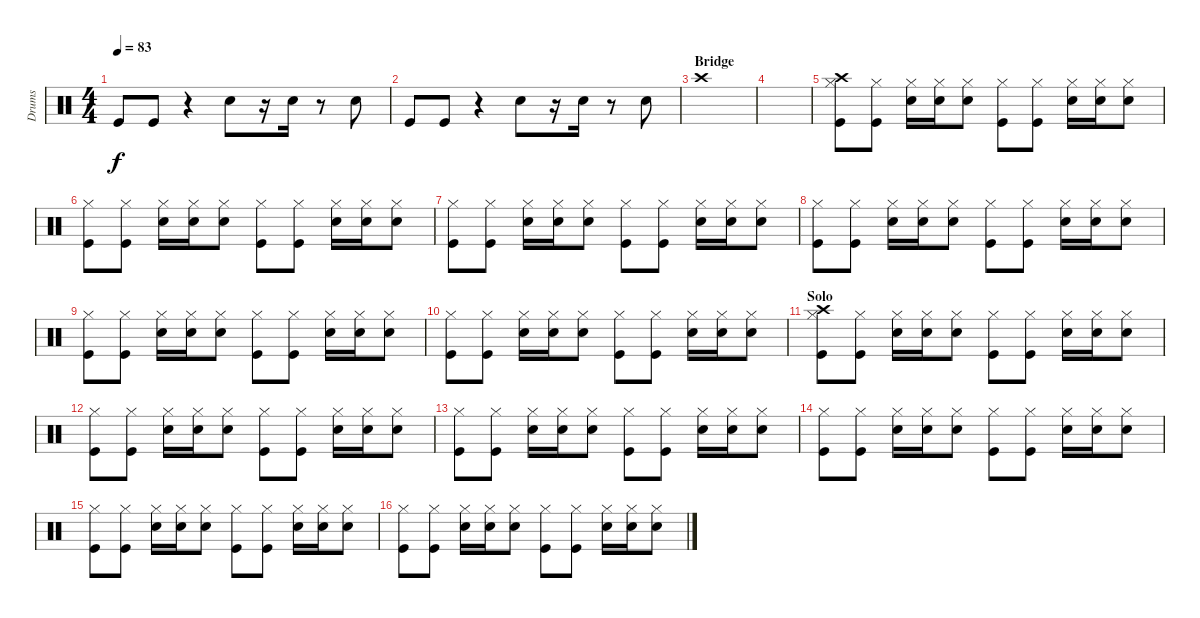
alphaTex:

\track ("Drums" "Drums") {instrument percussion}
\staff {score}
\articulation defaults
\ts (4 4)
\tempo 83
\clef neutral
\ks c "Kick (hit)".8{dy f} "Kick (hit)".8
r.4 "Snare (hit) 2".8 r.16 "Electric Snare (hit)".16 r.8 "Electric Snare (hit)".8 |
"Kick (hit)".8 "Kick (hit)".8 r.4 "Snare (hit) 2".8 r.16 "Electric Snare (hit)".16 r.8 "Electric Snare (hit)".8 |
\section ("" "Bridge")
"Crash high (hit)".1 |
|
("Crash high (hit)" "Hi-Hat (closed)" "Kick (hit)").8 ("Hi-Hat (closed)" "Kick (hit)").8 ("Hi-Hat (closed)" "Electric Snare (hit)").16 ("Hi-Hat (closed)" "Snare (hit) 2").16 ("Hi-Hat (closed)" "Snare (hit) 2").8 ("Hi-Hat (closed)" "Kick (hit)").8 ("Hi-Hat (closed)" "Kick (hit)").8 ("Hi-Hat (closed)" "Electric Snare (hit)").16 ("Hi-Hat (closed)" "Snare (hit) 2").16 ("Hi-Hat (closed)" "Snare (hit) 2").8 |
("Hi-Hat (closed)" "Kick (hit)").8 ("Hi-Hat (closed)" "Kick (hit)").8 ("Hi-Hat (closed)" "Electric Snare (hit)").16 ("Hi-Hat (closed)" "Snare (hit) 2").16 ("Hi-Hat (closed)" "Snare (hit) 2").8 ("Hi-Hat (closed)" "Kick (hit)").8 ("Hi-Hat (closed)" "Kick (hit)").8 ("Hi-Hat (closed)" "Electric Snare (hit)").16 ("Hi-Hat (closed)" "Snare (hit) 2").16 ("Hi-Hat (closed)" "Snare (hit) 2").8 |
("Hi-Hat (closed)" "Kick (hit)").8 ("Hi-Hat (closed)" "Kick (hit)").8 ("Hi-Hat (closed)" "Electric Snare (hit)").16 ("Hi-Hat (closed)" "Snare (hit) 2").16 ("Hi-Hat (closed)" "Snare (hit) 2").8 ("Hi-Hat (closed)" "Kick (hit)").8 ("Hi-Hat (closed)" "Kick (hit)").8 ("Hi-Hat (closed)" "Electric Snare (hit)").16 ("Hi-Hat (closed)" "Snare (hit) 2").16 ("Hi-Hat (closed)" "Snare (hit) 2").8 |
("Hi-Hat (closed)" "Kick (hit)").8 ("Hi-Hat (closed)" "Kick (hit)").8 ("Hi-Hat (closed)" "Electric Snare (hit)").16 ("Hi-Hat (closed)" "Snare (hit) 2").16 ("Hi-Hat (closed)" "Snare (hit) 2").8 ("Hi-Hat (closed)" "Kick (hit)").8 ("Hi-Hat (closed)" "Kick (hit)").8 ("Hi-Hat (closed)" "Electric Snare (hit)").16 ("Hi-Hat (closed)" "Snare (hit) 2").16 ("Hi-Hat (closed)" "Snare (hit) 2").8 |
("Hi-Hat (closed)" "Kick (hit)").8 ("Hi-Hat (closed)" "Kick (hit)").8 ("Hi-Hat (closed)" "Electric Snare (hit)").16 ("Hi-Hat (closed)" "Snare (hit) 2").16 ("Hi-Hat (closed)" "Snare (hit) 2").8 ("Hi-Hat (closed)" "Kick (hit)").8 ("Hi-Hat (closed)" "Kick (hit)").8 ("Hi-Hat (closed)" "Electric Snare (hit)").16 ("Hi-Hat (closed)" "Snare (hit) 2").16 ("Hi-Hat (closed)" "Snare (hit) 2").8 |
("Hi-Hat (closed)" "Kick (hit)").8 ("Hi-Hat (closed)" "Kick (hit)").8 ("Hi-Hat (closed)" "Electric Snare (hit)").16 ("Hi-Hat (closed)" "Snare (hit) 2").16 ("Hi-Hat (closed)" "Snare (hit) 2").8 ("Hi-Hat (closed)" "Kick (hit)").8 ("Hi-Hat (closed)" "Kick (hit)").8 ("Hi-Hat (closed)" "Electric Snare (hit)").16 ("Hi-Hat (closed)" "Snare (hit) 2").16 ("Hi-Hat (closed)" "Snare (hit) 2").8 |
\section ("" "Solo")
("Crash high (hit)" "Hi-Hat (closed)" "Kick (hit)").8 ("Hi-Hat (closed)" "Kick (hit)").8 ("Hi-Hat (closed)" "Electric Snare (hit)").16 ("Hi-Hat (closed)" "Snare (hit) 2").16 ("Hi-Hat (closed)" "Snare (hit) 2").8 ("Hi-Hat (closed)" "Kick (hit)").8 ("Hi-Hat (closed)" "Kick (hit)").8 ("Hi-Hat (closed)" "Electric Snare (hit)").16 ("Hi-Hat (closed)" "Snare (hit) 2").16 ("Hi-Hat (closed)" "Snare (hit) 2").8 |
("Hi-Hat (closed)" "Kick (hit)").8 ("Hi-Hat (closed)" "Kick (hit)").8 ("Hi-Hat (closed)" "Electric Snare (hit)").16 ("Hi-Hat (closed)" "Snare (hit) 2").16 ("Hi-Hat (closed)" "Snare (hit) 2").8 ("Hi-Hat (closed)" "Kick (hit)").8 ("Hi-Hat (closed)" "Kick (hit)").8 ("Hi-Hat (closed)" "Electric Snare (hit)").16 ("Hi-Hat (closed)" "Snare (hit) 2").16 ("Hi-Hat (closed)" "Snare (hit) 2").8 |
("Hi-Hat (closed)" "Kick (hit)").8 ("Hi-Hat (closed)" "Kick (hit)").8 ("Hi-Hat (closed)" "Electric Snare (hit)").16 ("Hi-Hat (closed)" "Snare (hit) 2").16 ("Hi-Hat (closed)" "Snare (hit) 2").8 ("Hi-Hat (closed)" "Kick (hit)").8 ("Hi-Hat (closed)" "Kick (hit)").8 ("Hi-Hat (closed)" "Electric Snare (hit)").16 ("Hi-Hat (closed)" "Snare (hit) 2").16 ("Hi-Hat (closed)" "Snare (hit) 2").8 |
("Hi-Hat (closed)" "Kick (hit)").8 ("Hi-Hat (closed)" "Kick (hit)").8 ("Hi-Hat (closed)" "Electric Snare (hit)").16 ("Hi-Hat (closed)" "Snare (hit) 2").16 ("Hi-Hat (closed)" "Snare (hit) 2").8 ("Hi-Hat (closed)" "Kick (hit)").8 ("Hi-Hat (closed)" "Kick (hit)").8 ("Hi-Hat (closed)" "Electric Snare (hit)").16 ("Hi-Hat (closed)" "Snare (hit) 2").16 ("Hi-Hat (closed)" "Snare (hit) 2").8 |
("Hi-Hat (closed)" "Kick (hit)").8 ("Hi-Hat (closed)" "Kick (hit)").8 ("Hi-Hat (closed)" "Electric Snare (hit)").16 ("Hi-Hat (closed)" "Snare (hit) 2").16 ("Hi-Hat (closed)" "Snare (hit) 2").8 ("Hi-Hat (closed)" "Kick (hit)").8 ("Hi-Hat (closed)" "Kick (hit)").8 ("Hi-Hat (closed)" "Electric Snare (hit)").16 ("Hi-Hat (closed)" "Snare (hit) 2").16 ("Hi-Hat (closed)" "Snare (hit) 2").8 |
("Hi-Hat (closed)" "Kick (hit)").8 ("Hi-Hat (closed)" "Kick (hit)").8 ("Hi-Hat (closed)" "Electric Snare (hit)").16 ("Hi-Hat (closed)" "Snare (hit) 2").16 ("Hi-Hat (closed)" "Snare (hit) 2").8 ("Hi-Hat (closed)" "Kick (hit)").8 ("Hi-Hat (closed)" "Kick (hit)").8 ("Hi-Hat (closed)" "Electric Snare (hit)").16 ("Hi-Hat (closed)" "Snare (hit) 2").16 ("Hi-Hat (closed)" "Snare (hit) 2").8
